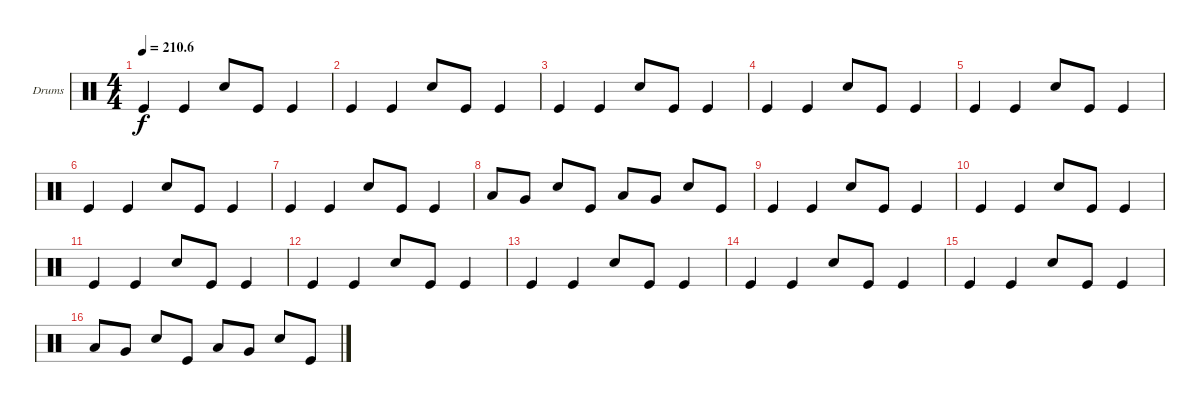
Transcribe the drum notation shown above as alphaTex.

\defaultSystemsLayout 4
\bracketExtendMode groupsimilarinstruments
\firstSystemTrackNameOrientation horizontal
\otherSystemsTrackNameOrientation horizontal
\track ("Drumkit" "Drums") {instrument percussion}
\staff {score}
\articulation defaults
\ts (4 4)
\tempo
210.6
\accidentals auto
\clef neutral
\ottava regular
\simile none
\ks c "Kick (hit)".4{dy f} "Kick (hit)".4 "Snare (hit) 2".8 "Kick (hit)".8 "Kick (hit)".4
|
"Kick (hit)".4 "Kick (hit)".4 "Snare (hit) 2".8 "Kick (hit)".8 "Kick (hit)".4 |
"Kick (hit)".4 "Kick (hit)".4 "Snare (hit) 2".8 "Kick (hit)".8 "Kick (hit)".4 |
"Kick (hit)".4 "Kick (hit)".4 "Snare (hit) 2".8 "Kick (hit)".8 "Kick (hit)".4 |
"Kick (hit)".4 "Kick (hit)".4 "Snare (hit) 2".8 "Kick (hit)".8 "Kick (hit)".4 |
"Kick (hit)".4 "Kick (hit)".4 "Snare (hit) 2".8 "Kick (hit)".8 "Kick (hit)".4 |
"Kick (hit)".4 "Kick (hit)".4 "Snare (hit) 2".8 "Kick (hit)".8 "Kick (hit)".4 |
"Low Tom (hit)".8 "Very Low Tom (hit)".8 "Snare (hit) 2".8 "Kick (hit)".8 "Low Tom (hit)".8 "Very Low Tom (hit)".8 "Snare (hit) 2".8 "Kick (hit)".8 |
"Kick (hit)".4 "Kick (hit)".4 "Snare (hit) 2".8 "Kick (hit)".8 "Kick (hit)".4 |
"Kick (hit)".4 "Kick (hit)".4 "Snare (hit) 2".8 "Kick (hit)".8 "Kick (hit)".4 |
"Kick (hit)".4 "Kick (hit)".4 "Snare (hit) 2".8 "Kick (hit)".8 "Kick (hit)".4 |
"Kick (hit)".4 "Kick (hit)".4 "Snare (hit) 2".8 "Kick (hit)".8 "Kick (hit)".4 |
"Kick (hit)".4 "Kick (hit)".4 "Snare (hit) 2".8 "Kick (hit)".8 "Kick (hit)".4 |
"Kick (hit)".4 "Kick (hit)".4 "Snare (hit) 2".8 "Kick (hit)".8 "Kick (hit)".4 |
"Kick (hit)".4 "Kick (hit)".4 "Snare (hit) 2".8 "Kick (hit)".8 "Kick (hit)".4 |
"Low Tom (hit)".8 "Very Low Tom (hit)".8 "Snare (hit) 2".8 "Kick (hit)".8 "Low Tom (hit)".8 "Very Low Tom (hit)".8 "Snare (hit) 2".8 "Kick (hit)".8
